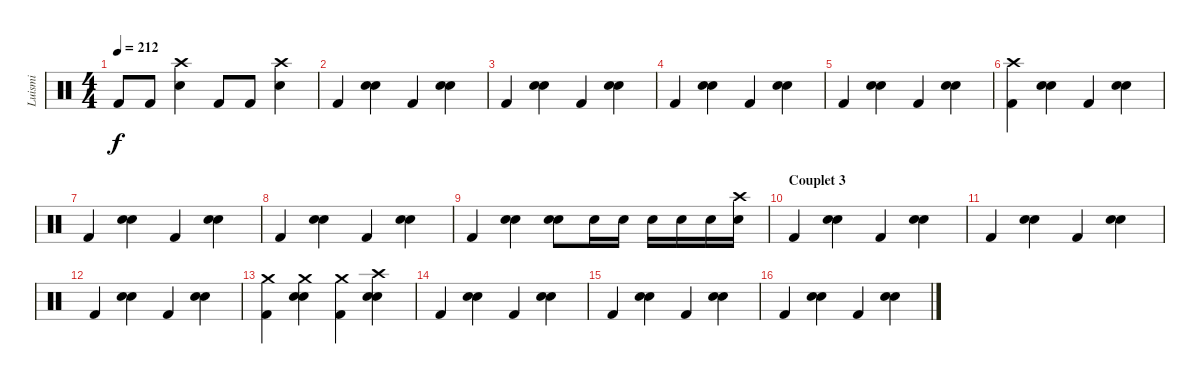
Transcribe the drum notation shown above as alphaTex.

\track ("Luismi" "Luismi") {instrument percussion}
\staff {score}
\articulation defaults
\ts (4 4)
\tempo 212
\clef neutral
\ks c "Kick (hit) 2".8{dy f} "Kick (hit) 2".8
("Crash high (hit)" "Electric Snare (hit)").4 "Kick (hit) 2".8 "Kick (hit) 2".8 ("Crash high (hit)" "Electric Snare (hit)").4 |
"Kick (hit) 2".4 ("Electric Snare (hit)" "Snare (hit) 2").4 "Kick (hit) 2".4 ("Electric Snare (hit)" "Snare (hit) 2").4 |
"Kick (hit) 2".4 ("Electric Snare (hit)" "Snare (hit) 2").4 "Kick (hit) 2".4 ("Electric Snare (hit)" "Snare (hit) 2").4 |
"Kick (hit) 2".4 ("Snare (hit) 2" "Electric Snare (hit)").4 "Kick (hit) 2".4 ("Electric Snare (hit)" "Snare (hit) 2").4 |
"Kick (hit) 2".4 ("Electric Snare (hit)" "Snare (hit) 2").4 "Kick (hit) 2".4 ("Electric Snare (hit)" "Snare (hit) 2").4 |
("Crash high (hit)" "Kick (hit) 2").4 ("Electric Snare (hit)" "Snare (hit) 2").4 "Kick (hit) 2".4 ("Electric Snare (hit)" "Snare (hit) 2").4 |
"Kick (hit) 2".4 ("Electric Snare (hit)" "Snare (hit) 2").4 "Kick (hit) 2".4 ("Electric Snare (hit)" "Snare (hit) 2").4 |
"Kick (hit) 2".4 ("Snare (hit) 2" "Electric Snare (hit)").4 "Kick (hit) 2".4 ("Electric Snare (hit)" "Snare (hit) 2").4 |
"Kick (hit) 2".4 ("Snare (hit) 2" "Electric Snare (hit)").4 ("Snare (hit) 2" "Electric Snare (hit)").8 "Electric Snare (hit)".16 "Electric Snare (hit)".16 "Electric Snare (hit)".16 "Electric Snare (hit)".16 "Electric Snare (hit)".16 ("Crash high (hit)" "Electric Snare (hit)").16 |
\section ("" "Couplet 3")
"Kick (hit) 2".4 ("Electric Snare (hit)" "Snare (hit) 2").4 "Kick (hit) 2".4 ("Electric Snare (hit)" "Snare (hit) 2").4 |
"Kick (hit) 2".4 ("Electric Snare (hit)" "Snare (hit) 2").4 "Kick (hit) 2".4 ("Electric Snare (hit)" "Snare (hit) 2").4 |
"Kick (hit) 2".4 ("Electric Snare (hit)" "Snare (hit) 2").4 "Kick (hit) 2".4 ("Electric Snare (hit)" "Snare (hit) 2").4 |
("Crash medium (hit)" "Kick (hit) 2").4 ("Crash medium (hit)" "Electric Snare (hit)" "Snare (hit) 2").4 ("Crash medium (hit)" "Kick (hit) 2").4 ("Crash high (hit)" "Electric Snare (hit)" "Snare (hit) 2").4 |
"Kick (hit) 2".4 ("Electric Snare (hit)" "Snare (hit) 2").4 "Kick (hit) 2".4 ("Electric Snare (hit)" "Snare (hit) 2").4 |
"Kick (hit) 2".4 ("Electric Snare (hit)" "Snare (hit) 2").4 "Kick (hit) 2".4 ("Electric Snare (hit)" "Snare (hit) 2").4 |
"Kick (hit) 2".4 ("Electric Snare (hit)" "Snare (hit) 2").4 "Kick (hit) 2".4 ("Electric Snare (hit)" "Snare (hit) 2").4
